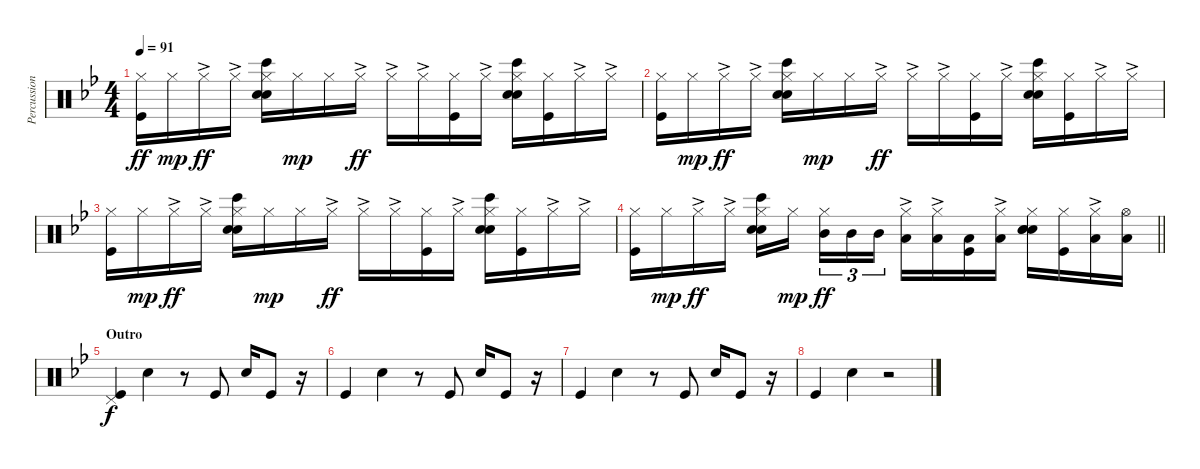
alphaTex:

\track ("Percussion" "Percussion") {instrument percussion}
\staff {score}
\articulation defaults
\ts (4 4)
\tempo 91
\clef neutral
\ks bb
("Hi-Hat (closed)" "Kick (hit)").16{dy ff} "Hi-Hat (closed)".16{dy mp} "Hi-Hat (closed)"{ac}.16{dy ff} "Hi-Hat (closed)"{ac}.16 ("Hi-Hat (closed)" "Snare (hit) 2" "Bongo High (hit)" "Hand Clap (hit)").16 "Hi-Hat (closed)".16{dy mp} "Hi-Hat (closed)".16 "Hi-Hat (closed)"{ac}.16{dy ff} "Hi-Hat (closed)"{ac}.16 "Hi-Hat (closed)"{ac}.16 ("Hi-Hat (closed)" "Kick (hit)").16 "Hi-Hat (closed)"{ac}.16 ("Hi-Hat (closed)" "Snare (hit) 2" "Bongo High (hit)" "Hand Clap (hit)").16 ("Hi-Hat (closed)" "Kick (hit)").16 "Hi-Hat (closed)"{ac}.16 "Hi-Hat (closed)"{ac}.16 |
("Hi-Hat (closed)" "Kick (hit)").16 "Hi-Hat (closed)".16{dy mp} "Hi-Hat (closed)"{ac}.16{dy ff} "Hi-Hat (closed)"{ac}.16 ("Hi-Hat (closed)" "Snare (hit) 2" "Bongo High (hit)" "Hand Clap (hit)").16 "Hi-Hat (closed)".16{dy mp} "Hi-Hat (closed)".16 "Hi-Hat (closed)"{ac}.16{dy ff} "Hi-Hat (closed)"{ac}.16 "Hi-Hat (closed)"{ac}.16 ("Hi-Hat (closed)" "Kick (hit)").16 "Hi-Hat (closed)"{ac}.16 ("Hi-Hat (closed)" "Snare (hit) 2" "Bongo High (hit)" "Hand Clap (hit)").16 ("Hi-Hat (closed)" "Kick (hit)").16 "Hi-Hat (closed)"{ac}.16 "Hi-Hat (closed)"{ac}.16 |
("Hi-Hat (closed)" "Kick (hit)").16 "Hi-Hat (closed)".16{dy mp} "Hi-Hat (closed)"{ac}.16{dy ff} "Hi-Hat (closed)"{ac}.16 ("Hi-Hat (closed)" "Snare (hit) 2" "Bongo High (hit)" "Hand Clap (hit)").16 "Hi-Hat (closed)".16{dy mp} "Hi-Hat (closed)".16 "Hi-Hat (closed)"{ac}.16{dy ff} "Hi-Hat (closed)"{ac}.16 "Hi-Hat (closed)"{ac}.16 ("Hi-Hat (closed)" "Kick (hit)").16 "Hi-Hat (closed)"{ac}.16 ("Hi-Hat (closed)" "Snare (hit) 2" "Bongo High (hit)" "Hand Clap (hit)").16 ("Hi-Hat (closed)" "Kick (hit)").16 "Hi-Hat (closed)"{ac}.16 "Hi-Hat (closed)"{ac}.16 |
\barLineRight lightlight
("Hi-Hat (closed)" "Kick (hit)").16 "Hi-Hat (closed)".16{dy mp} "Hi-Hat (closed)"{ac}.16{dy ff} "Hi-Hat (closed)"{ac}.16 ("Hi-Hat (closed)" "Snare (hit) 2" "Bongo High (hit)" "Hand Clap (hit)").16 "Hi-Hat (closed)".16{dy mp beam splitsecondary} ("Hi-Hat (closed)" "Mid Tom (hit)").16{tu (3 2) dy ff} "Mid Tom (hit)".16{tu (3 2)} "Mid Tom (hit)".16{tu (3 2)} ("Hi-Hat (closed)"{ac} "Low Tom (hit)").16 ("Hi-Hat (closed)"{ac} "Low Tom (hit)").16 ("Kick (hit)" "Low Tom (hit)").16 ("Hi-Hat (closed)"{ac} "Low Tom (hit)").16 ("Hi-Hat (closed)" "Snare (hit) 2" "Hand Clap (hit)" "Hand Clap (hit)").16 ("Hi-Hat (closed)" "Kick (hit)").16 ("Hi-Hat (closed)"{ac} "Low Floor Tom (hit)").16 ("Hi-Hat (open)" "Low Floor Tom (hit)").16 |
\section ("" "Outro")
("Pedal Hi-Hat (hit)" "Kick (hit)").4{dy f} "Electric Snare (hit)".4 r.8 "Kick (hit)".8 "Electric Snare (hit)".16 "Kick (hit)".8 r.16 |
"Kick (hit)".4 "Electric Snare (hit)".4 r.8 "Kick (hit)".8 "Electric Snare (hit)".16 "Kick (hit)".8 r.16 |
"Kick (hit)".4 "Electric Snare (hit)".4 r.8 "Kick (hit)".8 "Electric Snare (hit)".16 "Kick (hit)".8 r.16 |
"Kick (hit)".4 "Electric Snare (hit)".4 r.2
